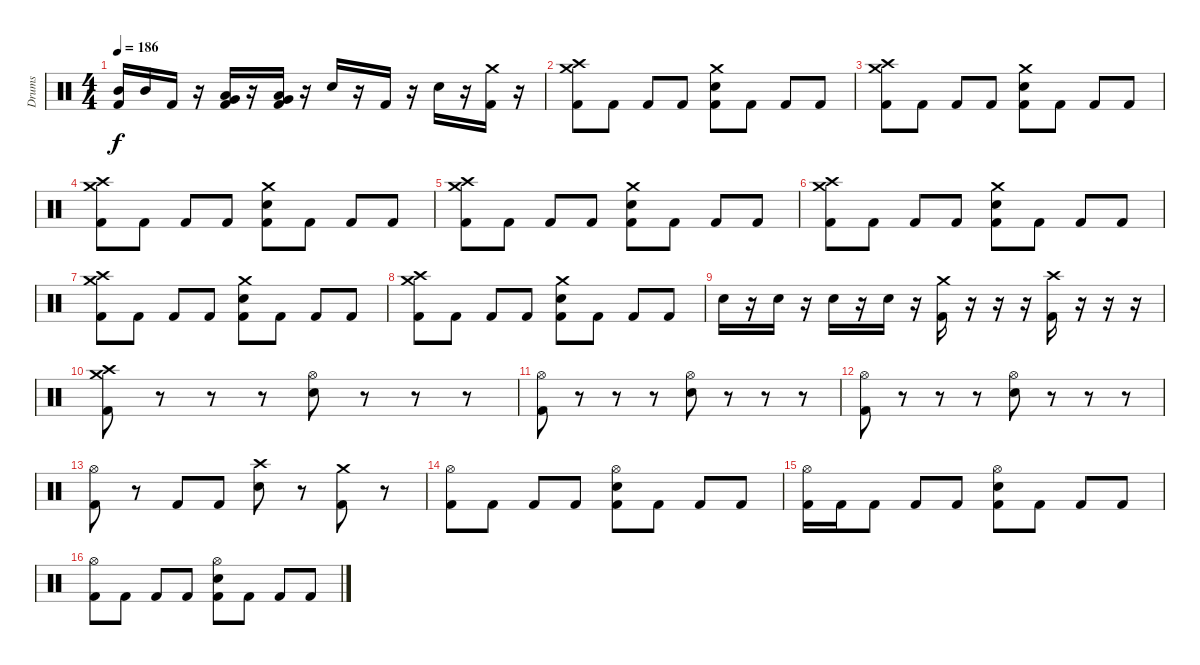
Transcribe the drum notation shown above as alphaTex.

\track ("Drums" "Drums") {instrument percussion}
\staff {score}
\articulation defaults
\ts (4 4)
\tempo 186
\clef neutral
\ks c
("Mid Tom (hit)" "Kick (hit) 2").16{dy f} "Mid Tom (hit)".16 "Kick (hit) 2".16 r.16 ("Very Low Tom (hit)" "Low Tom (hit)" "Kick (hit) 2").16 r.16 ("Very Low Tom (hit)" "Low Tom (hit)" "Kick (hit) 2").16 r.16 "Snare (hit) 2".16 r.16 "Kick (hit) 2".16 r.16 "Snare (hit) 2".16 r.16 ("Crash medium (hit)" "Kick (hit) 2").16 r.16 |
("Crash high (hit)" "Crash medium (hit)" "Kick (hit) 2").8 "Kick (hit) 2".8 "Kick (hit) 2".8 "Kick (hit) 2".8 ("Crash medium (hit)" "Snare (hit) 2" "Kick (hit) 2").8 "Kick (hit) 2".8 "Kick (hit) 2".8 "Kick (hit) 2".8 |
("Crash high (hit)" "Crash medium (hit)" "Kick (hit) 2").8 "Kick (hit) 2".8 "Kick (hit) 2".8 "Kick (hit) 2".8 ("Crash medium (hit)" "Snare (hit) 2" "Kick (hit) 2").8 "Kick (hit) 2".8 "Kick (hit) 2".8 "Kick (hit) 2".8 |
("Crash high (hit)" "Crash medium (hit)" "Kick (hit) 2").8 "Kick (hit) 2".8 "Kick (hit) 2".8 "Kick (hit) 2".8 ("Crash medium (hit)" "Snare (hit) 2" "Kick (hit) 2").8 "Kick (hit) 2".8 "Kick (hit) 2".8 "Kick (hit) 2".8 |
("Crash high (hit)" "Crash medium (hit)" "Kick (hit) 2").8 "Kick (hit) 2".8 "Kick (hit) 2".8 "Kick (hit) 2".8 ("Crash medium (hit)" "Snare (hit) 2" "Kick (hit) 2").8 "Kick (hit) 2".8 "Kick (hit) 2".8 "Kick (hit) 2".8 |
("Crash high (hit)" "Crash medium (hit)" "Kick (hit) 2").8 "Kick (hit) 2".8 "Kick (hit) 2".8 "Kick (hit) 2".8 ("Crash medium (hit)" "Snare (hit) 2" "Kick (hit) 2").8 "Kick (hit) 2".8 "Kick (hit) 2".8 "Kick (hit) 2".8 |
("Crash high (hit)" "Crash medium (hit)" "Kick (hit) 2").8 "Kick (hit) 2".8 "Kick (hit) 2".8 "Kick (hit) 2".8 ("Crash medium (hit)" "Snare (hit) 2" "Kick (hit) 2").8 "Kick (hit) 2".8 "Kick (hit) 2".8 "Kick (hit) 2".8 |
("Crash high (hit)" "Crash medium (hit)" "Kick (hit) 2").8 "Kick (hit) 2".8 "Kick (hit) 2".8 "Kick (hit) 2".8 ("Crash medium (hit)" "Snare (hit) 2" "Kick (hit) 2").8 "Kick (hit) 2".8 "Kick (hit) 2".8 "Kick (hit) 2".8 |
"Snare (hit) 2".16 r.16 "Snare (hit) 2".16 r.16 "Snare (hit) 2".16 r.16 "Snare (hit) 2".16 r.16 ("Crash medium (hit)" "Kick (hit) 2").16 r.16 r.16 r.16 ("Crash high (hit)" "Kick (hit) 2").16 r.16 r.16 r.16 |
("Crash high (hit)" "Crash medium (hit)" "Kick (hit) 2").8 r.8 r.8 r.8 ("Hi-Hat (open)" "Snare (hit) 2").8 r.8 r.8 r.8 |
("Hi-Hat (open)" "Kick (hit) 2").8 r.8 r.8 r.8 ("Hi-Hat (open)" "Snare (hit) 2").8 r.8 r.8 r.8 |
("Hi-Hat (open)" "Kick (hit) 2").8 r.8 r.8 r.8 ("Hi-Hat (open)" "Snare (hit) 2").8 r.8 r.8 r.8 |
("Hi-Hat (open)" "Kick (hit) 2").8 r.8 "Kick (hit) 2".8 "Kick (hit) 2".8 ("Crash high (hit)" "Snare (hit) 2").8 r.8 ("Crash medium (hit)" "Kick (hit) 2").8 r.8 |
("Hi-Hat (open)" "Kick (hit) 2").8 "Kick (hit) 2".8 "Kick (hit) 2".8 "Kick (hit) 2".8 ("Hi-Hat (open)" "Snare (hit) 2" "Kick (hit) 2").8 "Kick (hit) 2".8 "Kick (hit) 2".8 "Kick (hit) 2".8 |
("Hi-Hat (open)" "Kick (hit) 2").16 "Kick (hit) 2".16 "Kick (hit) 2".8 "Kick (hit) 2".8 "Kick (hit) 2".8 ("Hi-Hat (open)" "Snare (hit) 2" "Kick (hit) 2").8 "Kick (hit) 2".8 "Kick (hit) 2".8 "Kick (hit) 2".8 |
("Hi-Hat (open)" "Kick (hit) 2").8 "Kick (hit) 2".8 "Kick (hit) 2".8 "Kick (hit) 2".8 ("Hi-Hat (open)" "Snare (hit) 2" "Kick (hit) 2").8 "Kick (hit) 2".8 "Kick (hit) 2".8 "Kick (hit) 2".8
